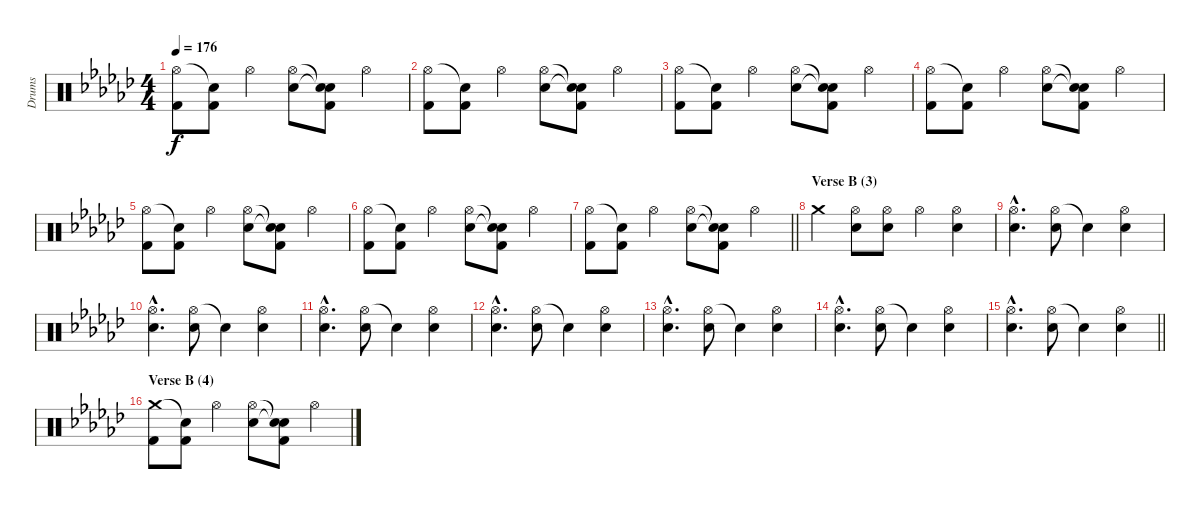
\track ("Drums" "Drums") {instrument percussion}
\staff {score}
\articulation defaults
\ts (4 4)
\tempo 176
\clef neutral
\ks ebminor
("Hi-Hat (open)" "Kick (hit) 2").8{dy f} ("Snare (hit)"{t} "Kick (hit) 2").8 "Hi-Hat (open)".4 ("Hi-Hat (open)" "Electric Snare (hit)").8 ("Snare (hit)"{t} "Snare (hit)"{t} "Kick (hit) 2").8 "Hi-Hat (open)".4 |
("Hi-Hat (open)" "Kick (hit) 2").8 ("Snare (hit)"{t} "Kick (hit) 2").8 "Hi-Hat (open)".4 ("Hi-Hat (open)" "Electric Snare (hit)").8 ("Snare (hit)"{t} "Snare (hit)"{t} "Kick (hit) 2").8 "Hi-Hat (open)".4 |
("Hi-Hat (open)" "Kick (hit) 2").8 ("Snare (hit)"{t} "Kick (hit) 2").8 "Hi-Hat (open)".4 ("Hi-Hat (open)" "Electric Snare (hit)").8 ("Snare (hit)"{t} "Snare (hit)"{t} "Kick (hit) 2").8 "Hi-Hat (open)".4 |
("Hi-Hat (open)" "Kick (hit) 2").8 ("Snare (hit)"{t} "Kick (hit) 2").8 "Hi-Hat (open)".4 ("Hi-Hat (open)" "Electric Snare (hit)").8 ("Snare (hit)"{t} "Snare (hit)"{t} "Kick (hit) 2").8 "Hi-Hat (open)".4 |
("Hi-Hat (open)" "Kick (hit) 2").8 ("Snare (hit)"{t} "Kick (hit) 2").8 "Hi-Hat (open)".4 ("Hi-Hat (open)" "Electric Snare (hit)").8 ("Snare (hit)"{t} "Snare (hit)"{t} "Kick (hit) 2").8 "Hi-Hat (open)".4 |
("Hi-Hat (open)" "Kick (hit) 2").8 ("Snare (hit)"{t} "Kick (hit) 2").8 "Hi-Hat (open)".4 ("Hi-Hat (open)" "Electric Snare (hit)").8 ("Snare (hit)"{t} "Snare (hit)"{t} "Kick (hit) 2").8 "Hi-Hat (open)".4 |
\barLineRight lightlight
("Hi-Hat (open)" "Kick (hit) 2").8 ("Snare (hit)"{t} "Kick (hit) 2").8 "Hi-Hat (open)".4 ("Hi-Hat (open)" "Electric Snare (hit)").8 ("Snare (hit)"{t} "Snare (hit)"{t} "Kick (hit) 2").8 "Hi-Hat (open)".4 |
\section ("" "Verse B (3)")
"Crash medium (hit)".4 ("Hi-Hat (open)" "Electric Snare (hit)").8 ("Hi-Hat (open)" "Electric Snare (hit)").8 "Hi-Hat (open)".4 ("Hi-Hat (open)" "Electric Snare (hit)").4 |
("Hi-Hat (open)"{hac} "Electric Snare (hit)"{hac}).4{d} ("Hi-Hat (open)" "Electric Snare (hit)").8 "Snare (hit)"{t}.4 ("Hi-Hat (open)" "Electric Snare (hit)").4 |
("Hi-Hat (open)"{hac} "Electric Snare (hit)"{hac}).4{d} ("Hi-Hat (open)" "Electric Snare (hit)").8 "Snare (hit)"{t}.4 ("Hi-Hat (open)" "Electric Snare (hit)").4 |
("Hi-Hat (open)"{hac} "Electric Snare (hit)"{hac}).4{d} ("Hi-Hat (open)" "Electric Snare (hit)").8 "Snare (hit)"{t}.4 ("Hi-Hat (open)" "Electric Snare (hit)").4 |
("Hi-Hat (open)"{hac} "Electric Snare (hit)"{hac}).4{d} ("Hi-Hat (open)" "Electric Snare (hit)").8 "Snare (hit)"{t}.4 ("Hi-Hat (open)" "Electric Snare (hit)").4 |
("Hi-Hat (open)"{hac} "Electric Snare (hit)"{hac}).4{d} ("Hi-Hat (open)" "Electric Snare (hit)").8 "Snare (hit)"{t}.4 ("Hi-Hat (open)" "Electric Snare (hit)").4 |
("Hi-Hat (open)"{hac} "Electric Snare (hit)"{hac}).4{d} ("Hi-Hat (open)" "Electric Snare (hit)").8 "Snare (hit)"{t}.4 ("Hi-Hat (open)" "Electric Snare (hit)").4 |
\barLineRight lightlight
("Hi-Hat (open)"{hac} "Electric Snare (hit)"{hac}).4{d} ("Hi-Hat (open)" "Electric Snare (hit)").8 "Snare (hit)"{t}.4 ("Hi-Hat (open)" "Electric Snare (hit)").4 |
\section ("" "Verse B (4)")
("Crash medium (hit)" "Kick (hit) 2").8 ("Snare (hit)"{t} "Kick (hit) 2").8 "Hi-Hat (open)".4 ("Hi-Hat (open)" "Electric Snare (hit)").8 ("Snare (hit)"{t} "Snare (hit)"{t} "Kick (hit) 2").8 "Hi-Hat (open)".4
